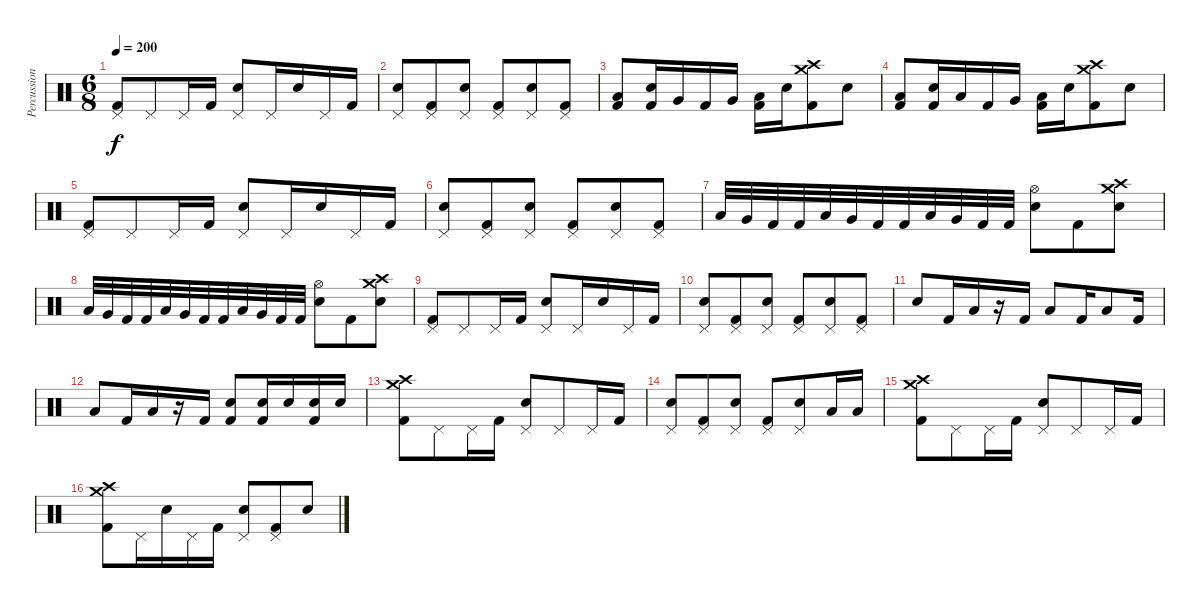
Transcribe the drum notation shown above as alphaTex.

\track ("Percussion" "Percussion") {instrument percussion}
\staff {score}
\articulation defaults
\ts (6 8)
\tempo 200
\clef neutral
\ks c
("Kick (hit) 2" "Pedal Hi-Hat (hit)").8{dy f} "Pedal Hi-Hat (hit)".8 "Pedal Hi-Hat (hit)".16 "Kick (hit) 2".16 ("Snare (hit) 2" "Pedal Hi-Hat (hit)").8 "Pedal Hi-Hat (hit)".16 "Snare (hit) 2".16 "Pedal Hi-Hat (hit)".16 "Kick (hit) 2".16 |
("Snare (hit) 2" "Pedal Hi-Hat (hit)").8 ("Kick (hit) 2" "Pedal Hi-Hat (hit)").8 ("Snare (hit) 2" "Pedal Hi-Hat (hit)").8 ("Kick (hit) 2" "Pedal Hi-Hat (hit)").8 ("Snare (hit) 2" "Pedal Hi-Hat (hit)").8 ("Kick (hit) 2" "Pedal Hi-Hat (hit)").8 |
("Kick (hit) 2" "Low Floor Tom (hit)").8 ("Snare (hit) 2" "Kick (hit) 2").16 "Very Low Tom (hit)".16 "Kick (hit) 2".16 "Very Low Tom (hit)".16 ("Kick (hit) 2" "Low Floor Tom (hit)").16 "Snare (hit) 2".16 ("Kick (hit) 2" "Crash high (hit)" "Crash medium (hit)").8 "Snare (hit) 2".8 |
("Kick (hit) 2" "Low Floor Tom (hit)").8 ("Snare (hit) 2" "Kick (hit) 2").16 "Low Floor Tom (hit)".16 "Kick (hit) 2".16 "Very Low Tom (hit)".16 ("Kick (hit) 2" "Low Floor Tom (hit)").16 "Snare (hit) 2".16 ("Kick (hit) 2" "Crash high (hit)" "Crash medium (hit)").8 "Snare (hit) 2".8 |
("Kick (hit) 2" "Pedal Hi-Hat (hit)").8 "Pedal Hi-Hat (hit)".8 "Pedal Hi-Hat (hit)".16 "Kick (hit) 2".16 ("Snare (hit) 2" "Pedal Hi-Hat (hit)").8 "Pedal Hi-Hat (hit)".16 "Snare (hit) 2".16 "Pedal Hi-Hat (hit)".16 "Kick (hit) 2".16 |
("Snare (hit) 2" "Pedal Hi-Hat (hit)").8 ("Kick (hit) 2" "Pedal Hi-Hat (hit)").8 ("Snare (hit) 2" "Pedal Hi-Hat (hit)").8 ("Kick (hit) 2" "Pedal Hi-Hat (hit)").8 ("Snare (hit) 2" "Pedal Hi-Hat (hit)").8 ("Kick (hit) 2" "Pedal Hi-Hat (hit)").8 |
"Low Floor Tom (hit)".32 "Very Low Tom (hit)".32 "Kick (hit) 2".32 "Kick (hit) 2".32 "Low Floor Tom (hit)".32 "Very Low Tom (hit)".32 "Kick (hit) 2".32 "Kick (hit) 2".32 "Low Floor Tom (hit)".32 "Very Low Tom (hit)".32 "Kick (hit) 2".32 "Kick (hit) 2".32 ("Snare (hit) 2" "Hi-Hat (open)").8 "Kick (hit) 2".8 ("Snare (hit) 2" "Crash high (hit)" "Crash medium (hit)").8 |
"Low Floor Tom (hit)".32 "Very Low Tom (hit)".32 "Kick (hit) 2".32 "Kick (hit) 2".32 "Low Floor Tom (hit)".32 "Very Low Tom (hit)".32 "Kick (hit) 2".32 "Kick (hit) 2".32 "Low Floor Tom (hit)".32 "Very Low Tom (hit)".32 "Kick (hit) 2".32 "Kick (hit) 2".32 ("Snare (hit) 2" "Hi-Hat (open)").8 "Kick (hit) 2".8 ("Snare (hit) 2" "Crash high (hit)" "Crash medium (hit)").8 |
("Kick (hit) 2" "Pedal Hi-Hat (hit)").8 "Pedal Hi-Hat (hit)".8 "Pedal Hi-Hat (hit)".16 "Kick (hit) 2".16 ("Snare (hit) 2" "Pedal Hi-Hat (hit)").8 "Pedal Hi-Hat (hit)".16 "Snare (hit) 2".16 "Pedal Hi-Hat (hit)".16 "Kick (hit) 2".16 |
("Snare (hit) 2" "Pedal Hi-Hat (hit)").8 ("Kick (hit) 2" "Pedal Hi-Hat (hit)").8 ("Snare (hit) 2" "Pedal Hi-Hat (hit)").8 ("Kick (hit) 2" "Pedal Hi-Hat (hit)").8 ("Snare (hit) 2" "Pedal Hi-Hat (hit)").8 ("Kick (hit) 2" "Pedal Hi-Hat (hit)").8 |
"Snare (hit) 2".8 "Kick (hit) 2".16 "Low Floor Tom (hit)".16 r.16 "Kick (hit) 2".16 "Low Floor Tom (hit)".8 "Kick (hit) 2".16 "Low Floor Tom (hit)".8 "Kick (hit) 2".16 |
"Low Floor Tom (hit)".8 "Kick (hit) 2".16 "Low Floor Tom (hit)".16 r.16 "Kick (hit) 2".16 ("Kick (hit) 2" "Electric Snare (hit)").8 ("Kick (hit) 2" "Snare (hit) 2").16 "Snare (hit) 2".16 ("Kick (hit) 2" "Snare (hit) 2").16 "Snare (hit) 2".16 |
("Kick (hit) 2" "Crash high (hit)" "Crash medium (hit)").8 "Pedal Hi-Hat (hit)".8 "Pedal Hi-Hat (hit)".16 "Kick (hit) 2".16 ("Snare (hit) 2" "Pedal Hi-Hat (hit)").8 "Pedal Hi-Hat (hit)".8 "Pedal Hi-Hat (hit)".16 "Kick (hit) 2".16 |
("Snare (hit) 2" "Pedal Hi-Hat (hit)").8 ("Kick (hit) 2" "Pedal Hi-Hat (hit)").8 ("Snare (hit) 2" "Pedal Hi-Hat (hit)").8 ("Kick (hit) 2" "Pedal Hi-Hat (hit)").8 ("Snare (hit) 2" "Pedal Hi-Hat (hit)").8 "Low Floor Tom (hit)".16 "Low Floor Tom (hit)".16 |
("Kick (hit) 2" "Crash high (hit)" "Crash medium (hit)").8 "Pedal Hi-Hat (hit)".8 "Pedal Hi-Hat (hit)".16 "Kick (hit) 2".16 ("Snare (hit) 2" "Pedal Hi-Hat (hit)").8 "Pedal Hi-Hat (hit)".8 "Pedal Hi-Hat (hit)".16 "Kick (hit) 2".16 |
("Kick (hit) 2" "Crash high (hit)" "Crash medium (hit)").8 "Pedal Hi-Hat (hit)".16 "Snare (hit) 2".16 "Pedal Hi-Hat (hit)".16 "Kick (hit) 2".16 ("Snare (hit) 2" "Pedal Hi-Hat (hit)").8 ("Kick (hit) 2" "Pedal Hi-Hat (hit)").8 "Snare (hit) 2".8
